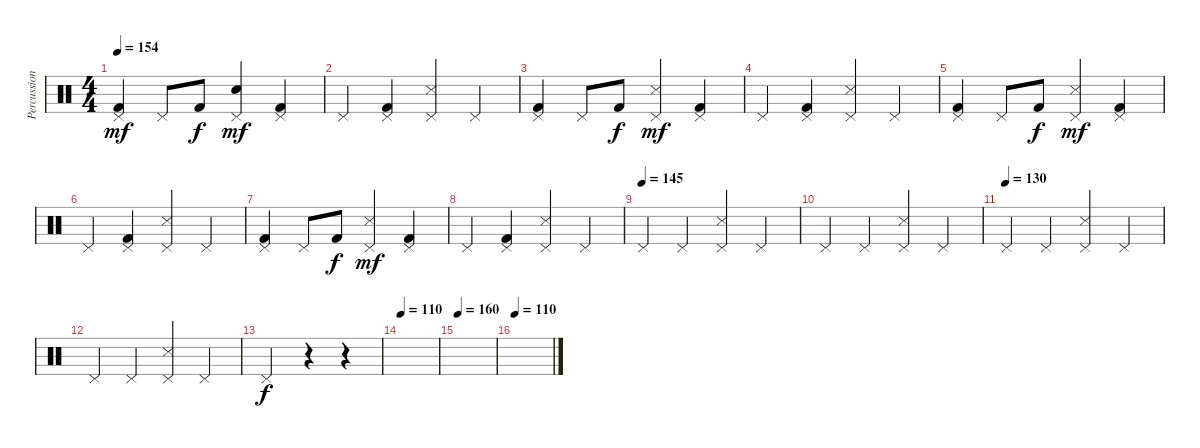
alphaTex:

\track ("Percussion" "Percussion") {instrument percussion}
\staff {score}
\articulation defaults
\ts (4 4)
\tempo 154
\clef neutral
\ks c
("Kick (hit) 2" "Pedal Hi-Hat (hit)").4{dy mf volume 2} "Pedal Hi-Hat (hit)".8 "Kick (hit) 2".8{dy f} ("Snare (hit) 2" "Pedal Hi-Hat (hit)").4{dy mf} ("Kick (hit) 2" "Pedal Hi-Hat (hit)").4 |
"Pedal Hi-Hat (hit)".4 ("Kick (hit) 2" "Pedal Hi-Hat (hit)").4 ("Snare (side stick) 3" "Pedal Hi-Hat (hit)").4 "Pedal Hi-Hat (hit)".4 |
("Kick (hit) 2" "Pedal Hi-Hat (hit)").4 "Pedal Hi-Hat (hit)".8 "Kick (hit) 2".8{dy f} ("Snare (side stick) 3" "Pedal Hi-Hat (hit)").4{dy mf} ("Kick (hit) 2" "Pedal Hi-Hat (hit)").4 |
"Pedal Hi-Hat (hit)".4 ("Kick (hit) 2" "Pedal Hi-Hat (hit)").4 ("Snare (side stick) 3" "Pedal Hi-Hat (hit)").4 "Pedal Hi-Hat (hit)".4 |
("Kick (hit) 2" "Pedal Hi-Hat (hit)").4 "Pedal Hi-Hat (hit)".8 "Kick (hit) 2".8{dy f} ("Snare (side stick) 3" "Pedal Hi-Hat (hit)").4{dy mf} ("Kick (hit) 2" "Pedal Hi-Hat (hit)").4 |
"Pedal Hi-Hat (hit)".4 ("Kick (hit) 2" "Pedal Hi-Hat (hit)").4 ("Snare (side stick) 3" "Pedal Hi-Hat (hit)").4 "Pedal Hi-Hat (hit)".4 |
("Kick (hit) 2" "Pedal Hi-Hat (hit)").4 "Pedal Hi-Hat (hit)".8 "Kick (hit) 2".8{dy f} ("Snare (side stick) 3" "Pedal Hi-Hat (hit)").4{dy mf} ("Kick (hit) 2" "Pedal Hi-Hat (hit)").4 |
"Pedal Hi-Hat (hit)".4 ("Kick (hit) 2" "Pedal Hi-Hat (hit)").4 ("Snare (side stick) 3" "Pedal Hi-Hat (hit)").4 "Pedal Hi-Hat (hit)".4 |
\tempo (145)
"Pedal Hi-Hat (hit)".4 "Pedal Hi-Hat (hit)".4 ("Snare (side stick) 3" "Pedal Hi-Hat (hit)").4 "Pedal Hi-Hat (hit)".4 |
"Pedal Hi-Hat (hit)".4 "Pedal Hi-Hat (hit)".4 ("Snare (side stick) 3" "Pedal Hi-Hat (hit)").4 "Pedal Hi-Hat (hit)".4 |
\tempo (130)
"Pedal Hi-Hat (hit)".4 "Pedal Hi-Hat (hit)".4 ("Snare (side stick) 3" "Pedal Hi-Hat (hit)").4 "Pedal Hi-Hat (hit)".4 |
"Pedal Hi-Hat (hit)".4 "Pedal Hi-Hat (hit)".4 ("Snare (side stick) 3" "Pedal Hi-Hat (hit)").4 "Pedal Hi-Hat (hit)".4 |
"Pedal Hi-Hat (hit)".2{dy f} r.4 r.4 |
\tempo 110
|
\tempo 160
|
\tempo 110
